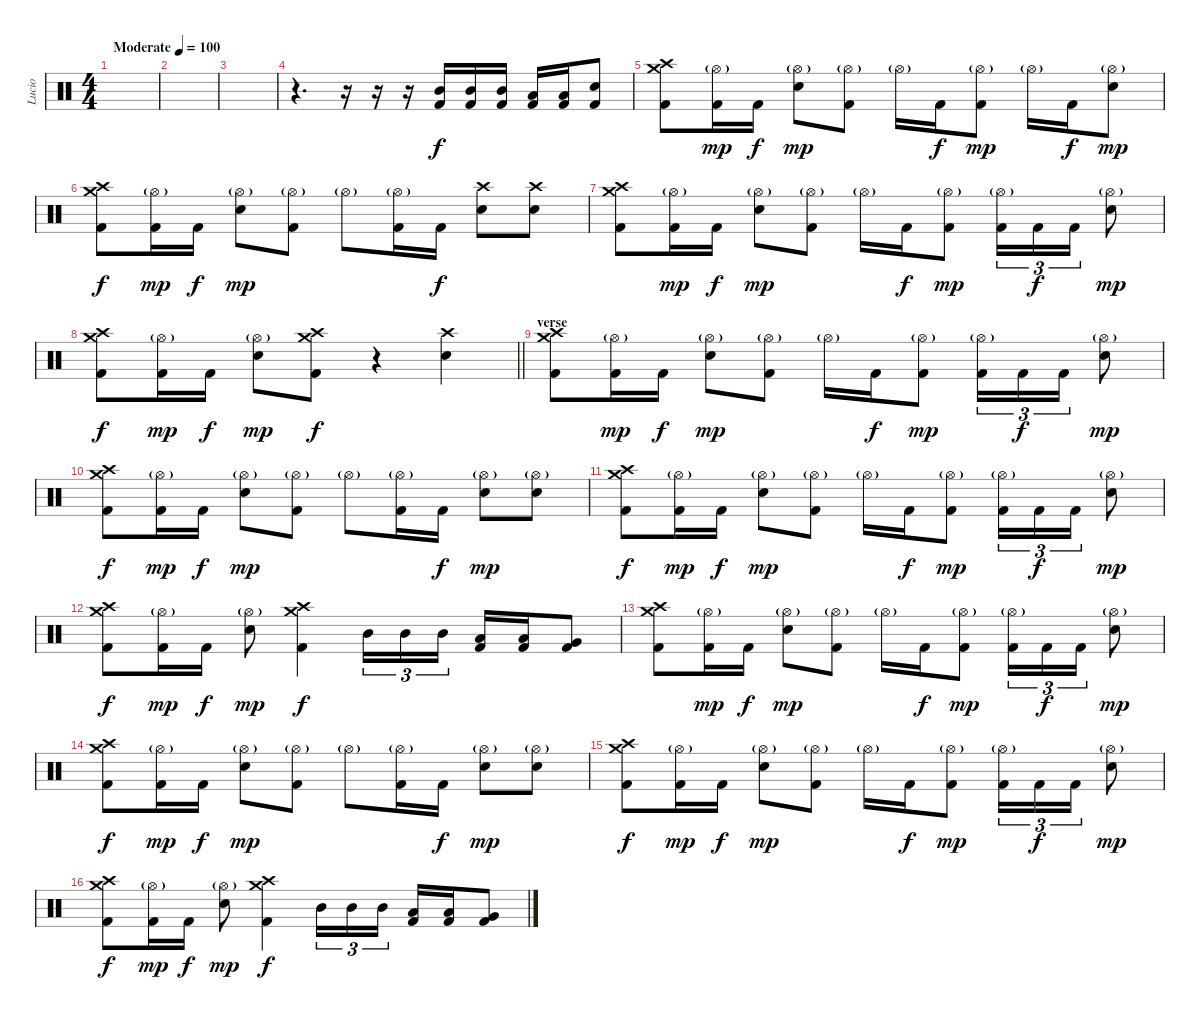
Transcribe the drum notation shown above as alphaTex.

\track ("Lucio" "Lucio") {instrument percussion}
\staff {score}
\articulation defaults
\ts (4 4)
\tempo (100 "Moderate")
\clef neutral
\ks c
|
|
|
r.4{d} r.16 r.16 r.16 ("Mid Tom (hit)" "Kick (hit) 2").16 ("Mid Tom (hit)" "Kick (hit) 2").16 ("Mid Tom (hit)" "Kick (hit) 2").16 ("Low Tom (hit)" "Kick (hit) 2").16 ("Low Tom (hit)" "Kick (hit) 2").16 ("Electric Snare (hit)" "Kick (hit) 2").8 |
("Crash medium (hit)" "Crash high (hit)" "Kick (hit) 2").8 ("Hi-Hat (open)"{g} "Kick (hit) 2").16{dy mp} "Kick (hit) 2".16{dy f} ("Hi-Hat (open)"{g} "Electric Snare (hit)").8{dy mp} ("Hi-Hat (open)"{g} "Kick (hit) 2").8 "Hi-Hat (open)"{g}.16 "Kick (hit) 2".16{dy f} ("Hi-Hat (open)"{g} "Kick (hit) 2").8{dy mp} "Hi-Hat (open)"{g}.16 "Kick (hit) 2".16{dy f} ("Hi-Hat (open)"{g} "Electric Snare (hit)").8{dy mp} |
("Crash medium (hit)" "Crash high (hit)" "Kick (hit) 2").8{dy f} ("Hi-Hat (open)"{g} "Kick (hit) 2").16{dy mp} "Kick (hit) 2".16{dy f} ("Hi-Hat (open)"{g} "Electric Snare (hit)").8{dy mp} ("Hi-Hat (open)"{g} "Kick (hit) 2").8 "Hi-Hat (open)"{g}.8 ("Hi-Hat (open)"{g} "Kick (hit) 2").16 "Kick (hit) 2".16{dy f} ("Crash high (hit)" "Electric Snare (hit)").8 ("Crash high (hit)" "Electric Snare (hit)").8 |
("Crash medium (hit)" "Crash high (hit)" "Kick (hit) 2").8 ("Hi-Hat (open)"{g} "Kick (hit) 2").16{dy mp} "Kick (hit) 2".16{dy f} ("Hi-Hat (open)"{g} "Electric Snare (hit)").8{dy mp} ("Hi-Hat (open)"{g} "Kick (hit) 2").8 "Hi-Hat (open)"{g}.16 "Kick (hit) 2".16{dy f} ("Hi-Hat (open)"{g} "Kick (hit) 2").8{dy mp} ("Hi-Hat (open)"{g} "Kick (hit) 2").16{tu (3 2)} "Kick (hit) 2".16{tu (3 2) dy f} "Kick (hit) 2".16{tu (3 2)} ("Hi-Hat (open)"{g} "Electric Snare (hit)").8{dy mp} |
\barLineRight lightlight
("Crash medium (hit)" "Crash high (hit)" "Kick (hit) 2").8{dy f} ("Hi-Hat (open)"{g} "Kick (hit) 2").16{dy mp} "Kick (hit) 2".16{dy f} ("Hi-Hat (open)"{g} "Electric Snare (hit)").8{dy mp} ("Crash medium (hit)" "Crash high (hit)" "Kick (hit) 2").8{dy f} r.4 ("Crash high (hit)" "Electric Snare (hit)").4 |
\section ("" "verse")
("Crash medium (hit)" "Crash high (hit)" "Kick (hit) 2").8 ("Hi-Hat (open)"{g} "Kick (hit) 2").16{dy mp} "Kick (hit) 2".16{dy f} ("Hi-Hat (open)"{g} "Electric Snare (hit)").8{dy mp} ("Hi-Hat (open)"{g} "Kick (hit) 2").8 "Hi-Hat (open)"{g}.16 "Kick (hit) 2".16{dy f} ("Hi-Hat (open)"{g} "Kick (hit) 2").8{dy mp} ("Hi-Hat (open)"{g} "Kick (hit) 2").16{tu (3 2)} "Kick (hit) 2".16{tu (3 2) dy f} "Kick (hit) 2".16{tu (3 2)} ("Hi-Hat (open)"{g} "Electric Snare (hit)").8{dy mp} |
("Crash medium (hit)" "Crash high (hit)" "Kick (hit) 2").8{dy f} ("Hi-Hat (open)"{g} "Kick (hit) 2").16{dy mp} "Kick (hit) 2".16{dy f} ("Hi-Hat (open)"{g} "Electric Snare (hit)").8{dy mp} ("Hi-Hat (open)"{g} "Kick (hit) 2").8 "Hi-Hat (open)"{g}.8 ("Hi-Hat (open)"{g} "Kick (hit) 2").16 "Kick (hit) 2".16{dy f} ("Hi-Hat (open)"{g} "Electric Snare (hit)").8{dy mp} ("Hi-Hat (open)"{g} "Electric Snare (hit)").8 |
("Crash medium (hit)" "Crash high (hit)" "Kick (hit) 2").8{dy f} ("Hi-Hat (open)"{g} "Kick (hit) 2").16{dy mp} "Kick (hit) 2".16{dy f} ("Hi-Hat (open)"{g} "Electric Snare (hit)").8{dy mp} ("Hi-Hat (open)"{g} "Kick (hit) 2").8 "Hi-Hat (open)"{g}.16 "Kick (hit) 2".16{dy f} ("Hi-Hat (open)"{g} "Kick (hit) 2").8{dy mp} ("Hi-Hat (open)"{g} "Kick (hit) 2").16{tu (3 2)} "Kick (hit) 2".16{tu (3 2) dy f} "Kick (hit) 2".16{tu (3 2)} ("Hi-Hat (open)"{g} "Electric Snare (hit)").8{dy mp} |
("Crash medium (hit)" "Crash high (hit)" "Kick (hit) 2").8{dy f} ("Hi-Hat (open)"{g} "Kick (hit) 2").16{dy mp} "Kick (hit) 2".16{dy f} ("Hi-Hat (open)"{g} "Electric Snare (hit)").8{dy mp} ("Crash medium (hit)" "Crash high (hit)" "Kick (hit) 2").4{dy f} "Mid Tom (hit)".16{tu (3 2)} "Mid Tom (hit)".16{tu (3 2)} "Mid Tom (hit)".16{tu (3 2)} ("Low Tom (hit)" "Kick (hit) 2").16 ("Low Tom (hit)" "Kick (hit) 2").16 ("Very Low Tom (hit)" "Kick (hit) 2").8 |
("Crash medium (hit)" "Crash high (hit)" "Kick (hit) 2").8 ("Hi-Hat (open)"{g} "Kick (hit) 2").16{dy mp} "Kick (hit) 2".16{dy f} ("Hi-Hat (open)"{g} "Electric Snare (hit)").8{dy mp} ("Hi-Hat (open)"{g} "Kick (hit) 2").8 "Hi-Hat (open)"{g}.16 "Kick (hit) 2".16{dy f} ("Hi-Hat (open)"{g} "Kick (hit) 2").8{dy mp} ("Hi-Hat (open)"{g} "Kick (hit) 2").16{tu (3 2)} "Kick (hit) 2".16{tu (3 2) dy f} "Kick (hit) 2".16{tu (3 2)} ("Hi-Hat (open)"{g} "Electric Snare (hit)").8{dy mp} |
("Crash medium (hit)" "Crash high (hit)" "Kick (hit) 2").8{dy f} ("Hi-Hat (open)"{g} "Kick (hit) 2").16{dy mp} "Kick (hit) 2".16{dy f} ("Hi-Hat (open)"{g} "Electric Snare (hit)").8{dy mp} ("Hi-Hat (open)"{g} "Kick (hit) 2").8 "Hi-Hat (open)"{g}.8 ("Hi-Hat (open)"{g} "Kick (hit) 2").16 "Kick (hit) 2".16{dy f} ("Hi-Hat (open)"{g} "Electric Snare (hit)").8{dy mp} ("Hi-Hat (open)"{g} "Electric Snare (hit)").8 |
("Crash medium (hit)" "Crash high (hit)" "Kick (hit) 2").8{dy f} ("Hi-Hat (open)"{g} "Kick (hit) 2").16{dy mp} "Kick (hit) 2".16{dy f} ("Hi-Hat (open)"{g} "Electric Snare (hit)").8{dy mp} ("Hi-Hat (open)"{g} "Kick (hit) 2").8 "Hi-Hat (open)"{g}.16 "Kick (hit) 2".16{dy f} ("Hi-Hat (open)"{g} "Kick (hit) 2").8{dy mp} ("Hi-Hat (open)"{g} "Kick (hit) 2").16{tu (3 2)} "Kick (hit) 2".16{tu (3 2) dy f} "Kick (hit) 2".16{tu (3 2)} ("Hi-Hat (open)"{g} "Electric Snare (hit)").8{dy mp} |
("Crash medium (hit)" "Crash high (hit)" "Kick (hit) 2").8{dy f} ("Hi-Hat (open)"{g} "Kick (hit) 2").16{dy mp} "Kick (hit) 2".16{dy f} ("Hi-Hat (open)"{g} "Electric Snare (hit)").8{dy mp} ("Crash medium (hit)" "Crash high (hit)" "Kick (hit) 2").4{dy f} "Mid Tom (hit)".16{tu (3 2)} "Mid Tom (hit)".16{tu (3 2)} "Mid Tom (hit)".16{tu (3 2)} ("Low Tom (hit)" "Kick (hit) 2").16 ("Low Tom (hit)" "Kick (hit) 2").16 ("Very Low Tom (hit)" "Kick (hit) 2").8
